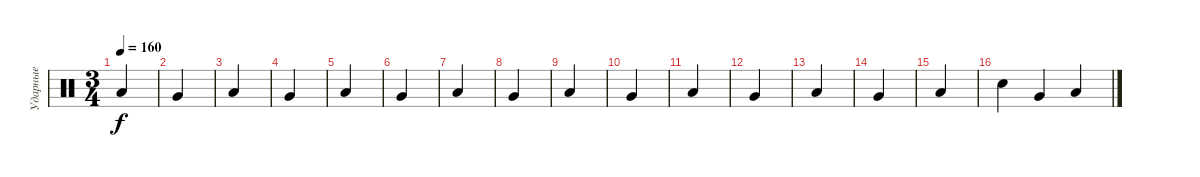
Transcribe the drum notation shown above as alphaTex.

\track ("Ударные" "Ударные") {instrument percussion}
\staff {score}
\articulation defaults
\ts (3 4)
\tempo 160
\clef neutral
\ks c "Low Floor Tom (hit)".4{dy f}
|
"Very Low Tom (hit)".4 |
"Low Floor Tom (hit)".4 |
"Very Low Tom (hit)".4 |
"Low Floor Tom (hit)".4 |
"Very Low Tom (hit)".4 |
"Low Floor Tom (hit)".4 |
"Very Low Tom (hit)".4 |
"Low Floor Tom (hit)".4 |
"Very Low Tom (hit)".4 |
"Low Floor Tom (hit)".4 |
"Very Low Tom (hit)".4 |
"Low Floor Tom (hit)".4 |
"Very Low Tom (hit)".4 |
"Low Floor Tom (hit)".4 |
"Snare (hit) 2".4 "Very Low Tom (hit)".4 "Low Floor Tom (hit)".4
